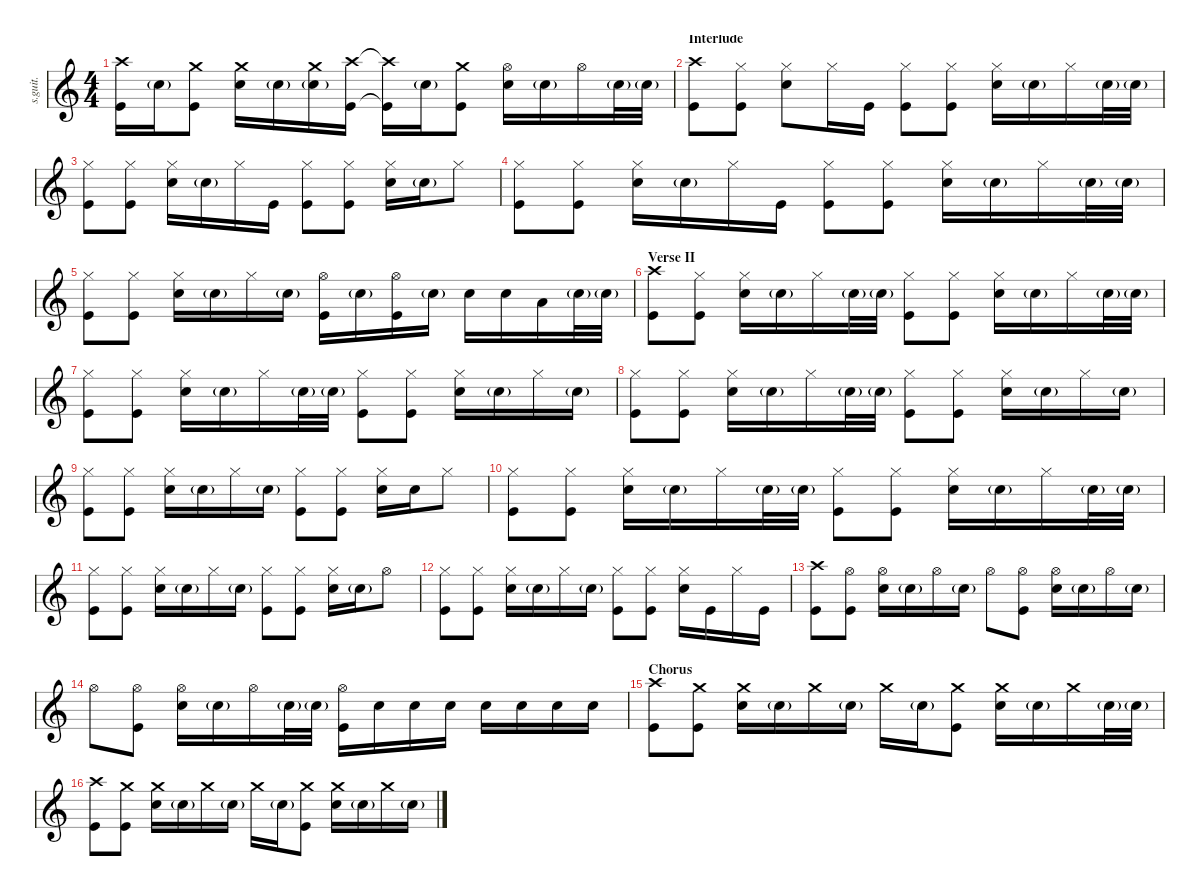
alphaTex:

\defaultSystemsLayout 4
\hideDynamics
\bracketExtendMode nobrackets
\track ("Chad Smith" "s.guit.") {instrument percussion}
\staff {score}
\articulation defaults
\ts (4 4)
\tempo (96 hide)
\clef g2
\ks c
("Crash high (hit)"{t} "Kick (hit)"{t}).16{dy f} "Snare (hit) 2"{g}.16{dy pp} ("Crash medium (hit)" "Kick (hit)").8{dy f} ("Crash medium (hit)" "Snare (hit) 2").16 "Snare (hit) 2"{g}.16{dy pp} ("Crash medium (hit)" "Snare (hit) 2"{g}).16{dy f} ("Crash high (hit)" "Kick (hit)").16 ("Crash high (hit)"{t} "Kick (hit)"{t}).16 "Snare (hit) 2"{g}.16{dy pp} ("Crash medium (hit)" "Kick (hit)").8{dy f} ("Hi-Hat (open)" "Snare (hit) 2").16 "Snare (hit) 2"{g}.16{dy pp} "Hi-Hat (open)".16{dy p} "Snare (hit) 2"{g}.32{dy pp} "Snare (hit) 2"{g}.32 |
\section ("" "Interlude")
("Crash high (hit)" "Kick (hit)").8{dy f} ("Hi-Hat (closed)" "Kick (hit)").8{dy p} ("Hi-Hat (closed)" "Snare (hit) 2").8{dy f} "Hi-Hat (closed)".16{dy p} "Kick (hit)".16{dy f} ("Hi-Hat (closed)" "Kick (hit)").8 ("Hi-Hat (closed)" "Kick (hit)").8{dy p} ("Hi-Hat (closed)" "Snare (hit) 2").16{dy f} "Snare (hit) 2"{g}.16{dy pp} "Hi-Hat (closed)".16{dy p} "Snare (hit) 2"{g}.32{dy pp} "Snare (hit) 2"{g}.32 |
("Hi-Hat (closed)" "Kick (hit)").8{dy f} ("Hi-Hat (closed)" "Kick (hit)").8{dy p} ("Hi-Hat (closed)" "Snare (hit) 2").16{dy f} "Snare (hit) 2"{g}.16{dy pp} "Hi-Hat (closed)".16{dy p} "Kick (hit)".16{dy f} ("Hi-Hat (closed)" "Kick (hit)").8 ("Hi-Hat (closed)" "Kick (hit)").8{dy p} ("Hi-Hat (closed)" "Snare (hit) 2").16{dy f} "Snare (hit) 2"{g}.16{dy pp} "Hi-Hat (closed)".8{dy p} |
("Hi-Hat (closed)" "Kick (hit)").8{dy f} ("Hi-Hat (closed)" "Kick (hit)").8{dy p} ("Hi-Hat (closed)" "Snare (hit) 2").16{dy f} "Snare (hit) 2"{g}.16{dy pp} "Hi-Hat (closed)".16{dy p} "Kick (hit)".16{dy f} ("Hi-Hat (closed)" "Kick (hit)").8 ("Hi-Hat (closed)" "Kick (hit)").8{dy p} ("Hi-Hat (closed)" "Snare (hit) 2").16{dy f} "Snare (hit) 2"{g}.16{dy pp} "Hi-Hat (closed)".16{dy p} "Snare (hit) 2"{g}.32{dy pp} "Snare (hit) 2"{g}.32 |
("Hi-Hat (closed)" "Kick (hit)").8{dy f} ("Hi-Hat (closed)" "Kick (hit)").8{dy p} ("Hi-Hat (closed)" "Snare (hit) 2").16{dy f} "Snare (hit) 2"{g}.16{dy pp} "Hi-Hat (closed)".16{dy p} "Snare (hit) 2"{g}.16{dy pp} ("Hi-Hat (open)" "Kick (hit)").16{dy mp} "Snare (hit) 2"{g}.16{dy pp} ("Hi-Hat (open)" "Kick (hit)").16{dy f} "Snare (hit) 2"{g}.16{dy pp} "Snare (hit) 2".16{dy f} "Snare (hit) 2".16 "Low Tom (hit)".16 "Snare (hit) 2"{g}.32{dy pp} "Snare (hit) 2"{g}.32 |
\section ("" "Verse II")
("Crash high (hit)" "Kick (hit)").8{dy f} ("Hi-Hat (closed)" "Kick (hit)").8{dy p} ("Hi-Hat (closed)" "Snare (hit) 2").16{dy f} "Snare (hit) 2"{g}.16{dy pp} "Hi-Hat (closed)".16{dy p} "Snare (hit) 2"{g}.32{dy pp} "Snare (hit) 2"{g}.32 ("Hi-Hat (closed)" "Kick (hit)").8{dy f} ("Hi-Hat (closed)" "Kick (hit)").8{dy p} ("Hi-Hat (closed)" "Snare (hit) 2").16{dy f} "Snare (hit) 2"{g}.16{dy pp} "Hi-Hat (closed)".16{dy p} "Snare (hit) 2"{g}.32{dy pp} "Snare (hit) 2"{g}.32 |
("Hi-Hat (closed)" "Kick (hit)").8{dy f} ("Hi-Hat (closed)" "Kick (hit)").8{dy p} ("Hi-Hat (closed)" "Snare (hit) 2").16{dy f} "Snare (hit) 2"{g}.16{dy pp} "Hi-Hat (closed)".16{dy p} "Snare (hit) 2"{g}.32{dy pp} "Snare (hit) 2"{g}.32 ("Hi-Hat (closed)" "Kick (hit)").8{dy f} ("Hi-Hat (closed)" "Kick (hit)").8{dy p} ("Hi-Hat (closed)" "Snare (hit) 2").16{dy f} "Snare (hit) 2"{g}.16{dy pp} "Hi-Hat (closed)".16{dy p} "Snare (hit) 2"{g}.16{dy pp} |
("Hi-Hat (closed)" "Kick (hit)").8{dy f} ("Hi-Hat (closed)" "Kick (hit)").8{dy p} ("Hi-Hat (closed)" "Snare (hit) 2").16{dy f} "Snare (hit) 2"{g}.16{dy pp} "Hi-Hat (closed)".16{dy p} "Snare (hit) 2"{g}.32{dy pp} "Snare (hit) 2"{g}.32 ("Hi-Hat (closed)" "Kick (hit)").8{dy f} ("Hi-Hat (closed)" "Kick (hit)").8{dy p} ("Hi-Hat (closed)" "Snare (hit) 2").16{dy f} "Snare (hit) 2"{g}.16{dy pp} "Hi-Hat (closed)".16{dy p} "Snare (hit) 2"{g}.16{dy pp} |
("Hi-Hat (closed)" "Kick (hit)").8{dy f} ("Hi-Hat (closed)" "Kick (hit)").8{dy p} ("Hi-Hat (closed)" "Snare (hit) 2").16{dy f} "Snare (hit) 2"{g}.16{dy pp} "Hi-Hat (closed)".16{dy p} "Snare (hit) 2"{g}.16{dy pp} ("Hi-Hat (closed)" "Kick (hit)").8{dy f} ("Hi-Hat (closed)" "Kick (hit)").8{dy p} ("Hi-Hat (closed)" "Snare (hit) 2").16{dy f} "Snare (hit) 2".16 "Hi-Hat (closed)".8{dy p} |
("Hi-Hat (closed)" "Kick (hit)").8{dy f} ("Hi-Hat (closed)" "Kick (hit)").8{dy p} ("Hi-Hat (closed)" "Snare (hit) 2").16{dy f} "Snare (hit) 2"{g}.16{dy pp} "Hi-Hat (closed)".16{dy p} "Snare (hit) 2"{g}.32{dy pp} "Snare (hit) 2"{g}.32 ("Hi-Hat (closed)" "Kick (hit)").8{dy f} ("Hi-Hat (closed)" "Kick (hit)").8{dy p} ("Hi-Hat (closed)" "Snare (hit) 2").16{dy f} "Snare (hit) 2"{g}.16{dy pp} "Hi-Hat (closed)".16{dy p} "Snare (hit) 2"{g}.32{dy pp} "Snare (hit) 2"{g}.32 |
("Hi-Hat (closed)" "Kick (hit)").8{dy f} ("Hi-Hat (closed)" "Kick (hit)").8{dy p} ("Hi-Hat (closed)" "Snare (hit) 2").16{dy f} "Snare (hit) 2"{g}.16{dy pp} "Hi-Hat (closed)".16{dy p} "Snare (hit) 2"{g}.16{dy pp} ("Hi-Hat (closed)" "Kick (hit)").8{dy f} ("Hi-Hat (closed)" "Kick (hit)").8{dy p} ("Hi-Hat (closed)" "Snare (hit) 2").16{dy f} "Snare (hit) 2"{g}.16{dy pp} "Hi-Hat (open)".8{dy f} |
("Hi-Hat (closed)" "Kick (hit)").8 ("Hi-Hat (closed)" "Kick (hit)").8{dy p} ("Hi-Hat (closed)" "Snare (hit) 2").16{dy f} "Snare (hit) 2"{g}.16{dy pp} "Hi-Hat (closed)".16{dy p} "Snare (hit) 2"{g}.16{dy pp} ("Hi-Hat (closed)" "Kick (hit)").8{dy f} ("Hi-Hat (closed)" "Kick (hit)").8{dy p} ("Hi-Hat (closed)" "Snare (hit) 2").16{dy f} "Kick (hit)".16 "Hi-Hat (closed)".16{dy p} "Kick (hit)".16{dy f} |
("Crash high (hit)" "Kick (hit)").8 ("Hi-Hat (open)" "Kick (hit)").8{dy p} ("Hi-Hat (open)" "Snare (hit) 2").16{dy f} "Snare (hit) 2"{g}.16{dy pp} "Hi-Hat (open)".16{dy p} "Snare (hit) 2"{g}.16{dy pp} "Hi-Hat (open)".8{dy f} ("Hi-Hat (open)" "Kick (hit)").8{dy p} ("Hi-Hat (open)" "Snare (hit) 2").16{dy f} "Snare (hit) 2"{g}.16{dy pp} "Hi-Hat (open)".16{dy p} "Snare (hit) 2"{g}.16{dy pp} |
"Hi-Hat (open)".8{dy f} ("Hi-Hat (open)" "Kick (hit)").8{dy p} ("Hi-Hat (open)" "Snare (hit) 2").16{dy f} "Snare (hit) 2"{g}.16{dy pp} "Hi-Hat (open)".16{dy p} "Snare (hit) 2"{g}.32{dy pp} "Snare (hit) 2"{g}.32 ("Hi-Hat (open)" "Kick (hit)").16{dy f} "Snare (hit) 2".16{dy p} "Snare (hit) 2".16{dy mp} "Snare (hit) 2".16 "Snare (hit) 2".16{dy mf} "Snare (hit) 2".16 "Snare (hit) 2".16{dy f} "Snare (hit) 2".16 |
\section ("" "Chorus")
("Crash high (hit)" "Kick (hit)").8 ("Crash medium (hit)" "Kick (hit)").8 ("Crash medium (hit)" "Snare (hit) 2").16 "Snare (hit) 2"{g}.16{dy pp} "Crash medium (hit)".16{dy f} "Snare (hit) 2"{g}.16{dy pp} "Crash medium (hit)".16{dy f} "Snare (hit) 2"{g}.16{dy pp} ("Crash medium (hit)" "Kick (hit)").8{dy f} ("Crash medium (hit)" "Snare (hit) 2").16 "Snare (hit) 2"{g}.16{dy pp} "Crash medium (hit)".16{dy f} "Snare (hit) 2"{g}.32{dy pp} "Snare (hit) 2"{g}.32 |
("Crash high (hit)" "Kick (hit)").8{dy f} ("Crash medium (hit)" "Kick (hit)").8 ("Crash medium (hit)" "Snare (hit) 2").16 "Snare (hit) 2"{g}.16{dy pp} "Crash medium (hit)".16{dy f} "Snare (hit) 2"{g}.16{dy pp} "Crash medium (hit)".16{dy f} "Snare (hit) 2"{g}.16{dy pp} ("Crash medium (hit)" "Kick (hit)").8{dy f} ("Crash medium (hit)" "Snare (hit) 2").16 "Snare (hit) 2"{g}.16{dy pp} "Crash medium (hit)".16{dy f} "Snare (hit) 2"{g}.16{dy pp}
